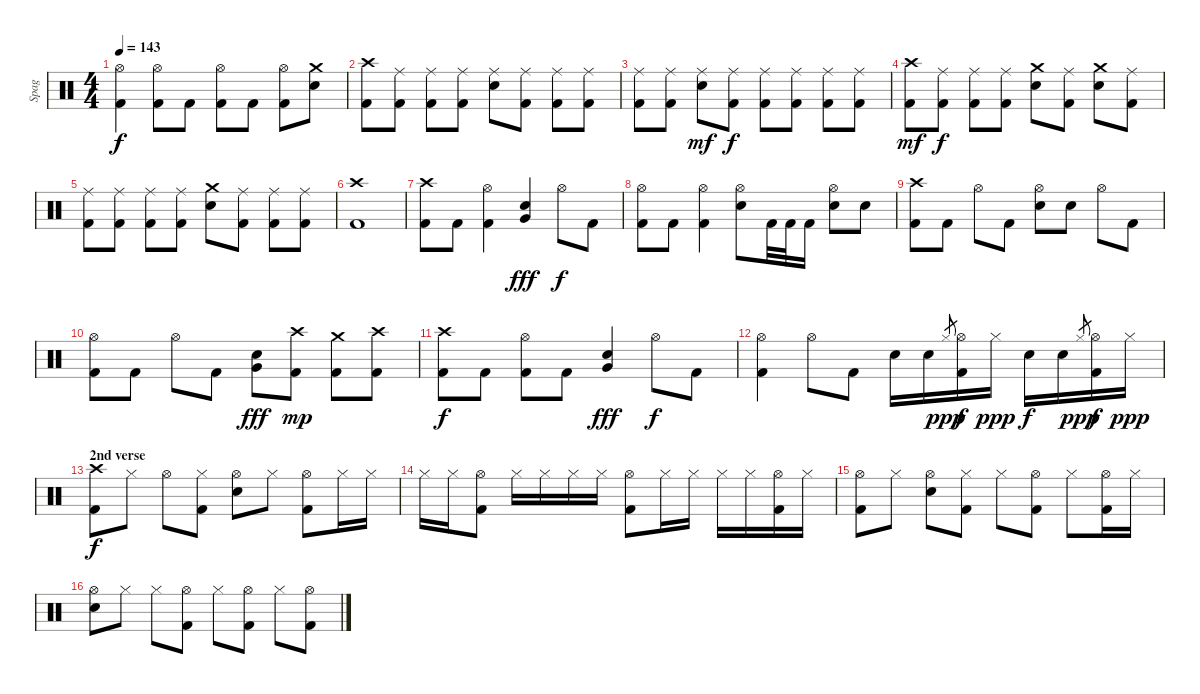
\track ("Spag" "Spag") {instrument percussion}
\staff {score}
\articulation defaults
\ts (4 4)
\tempo 143
\clef neutral
\ks c
("Hi-Hat (open)" "Kick (hit) 2").4{dy f} ("Hi-Hat (open)" "Kick (hit) 2").8 "Kick (hit) 2".8 ("Hi-Hat (open)" "Kick (hit) 2").8 "Kick (hit) 2".8 ("Hi-Hat (open)" "Kick (hit) 2").8 ("Crash medium (hit)" "Electric Snare (hit)").8 |
("Crash high (hit)" "Kick (hit) 2").8 ("Ride (middle)" "Kick (hit) 2").8 ("Ride (middle)" "Kick (hit) 2").8 ("Ride (middle)" "Kick (hit) 2").8 ("Ride (middle)" "Electric Snare (hit)").8 ("Ride (middle)" "Kick (hit) 2").8 ("Ride (middle)" "Kick (hit) 2").8 ("Ride (middle)" "Kick (hit) 2").8 |
("Ride (middle)" "Kick (hit) 2").8 ("Ride (middle)" "Kick (hit) 2").8 ("Ride (middle)" "Electric Snare (hit)").8{dy mf} ("Ride (middle)" "Kick (hit) 2").8{dy f} ("Ride (middle)" "Kick (hit) 2").8 ("Ride (middle)" "Kick (hit) 2").8 ("Ride (middle)" "Kick (hit) 2").8 ("Ride (middle)" "Kick (hit) 2").8 |
("Crash high (hit)" "Kick (hit) 2").8{dy mf} ("Ride (middle)" "Kick (hit) 2").8{dy f} ("Ride (middle)" "Kick (hit) 2").8 ("Ride (middle)" "Kick (hit) 2").8 ("Crash medium (hit)" "Electric Snare (hit)").8 ("Ride (middle)" "Kick (hit) 2").8 ("Crash medium (hit)" "Electric Snare (hit)").8 ("Ride (middle)" "Kick (hit) 2").8 |
("Ride (middle)" "Kick (hit) 2").8 ("Ride (middle)" "Kick (hit) 2").8 ("Ride (middle)" "Kick (hit) 2").8 ("Ride (middle)" "Kick (hit) 2").8 ("Crash medium (hit)" "Electric Snare (hit)").8 ("Ride (middle)" "Kick (hit) 2").8 ("Ride (middle)" "Kick (hit) 2").8 ("Ride (middle)" "Kick (hit) 2").8 |
("Crash high (hit)" "Kick (hit) 2").1 |
("Crash high (hit)" "Kick (hit) 2").8 "Kick (hit) 2".8 ("Hi-Hat (open)" "Kick (hit) 2").4 ("Electric Snare (hit)" "Very Low Tom (hit)").4{dy fff} "Hi-Hat (open)".8{dy f} "Kick (hit) 2".8 |
("Hi-Hat (open)" "Kick (hit) 2").8 "Kick (hit) 2".8 ("Hi-Hat (open)" "Kick (hit) 2").4 ("Hi-Hat (open)" "Electric Snare (hit)").8 "Kick (hit) 2".32 "Kick (hit) 2".32 "Kick (hit) 2".16 ("Hi-Hat (open)" "Electric Snare (hit)").8 "Electric Snare (hit)".8 |
("Crash high (hit)" "Kick (hit) 2").8 "Kick (hit) 2".8 "Hi-Hat (open)".8 "Kick (hit) 2".8 ("Hi-Hat (open)" "Electric Snare (hit)").8 "Electric Snare (hit)".8 "Hi-Hat (open)".8 "Kick (hit) 2".8 |
("Hi-Hat (open)" "Kick (hit) 2").8 "Kick (hit) 2".8 "Hi-Hat (open)".8 "Kick (hit) 2".8 ("Electric Snare (hit)" "Very Low Tom (hit)").8{dy fff} ("Crash high (hit)" "Kick (hit) 2").8{dy mp} ("Crash medium (hit)" "Kick (hit) 2").8 ("Crash high (hit)" "Kick (hit) 2").8 |
("Crash high (hit)" "Kick (hit) 2").8{dy f} "Kick (hit) 2".8 ("Hi-Hat (open)" "Kick (hit) 2").8 "Kick (hit) 2".8 ("Electric Snare (hit)" "Very Low Tom (hit)").4{dy fff} "Hi-Hat (open)".8{dy f} "Kick (hit) 2".8 |
("Hi-Hat (open)" "Kick (hit) 2").4 "Hi-Hat (open)".8 "Kick (hit) 2".8 "Electric Snare (hit)".16 "Electric Snare (hit)".16 "Hi-Hat (closed)".8{gr dy ppp} ("Hi-Hat (open)" "Kick (hit) 2").16{dy f} "Hi-Hat (closed)".16{dy ppp} "Electric Snare (hit)".16{dy f} "Electric Snare (hit)".16 "Hi-Hat (closed)".8{gr dy ppp} ("Hi-Hat (open)" "Kick (hit) 2").16{dy f} "Hi-Hat (closed)".16{dy ppp} |
\section ("" "2nd verse")
("Crash high (hit)" "Kick (hit) 2").8{dy f} "Hi-Hat (closed)".8 "Hi-Hat (open)".8 ("Hi-Hat (closed)" "Kick (hit) 2").8 ("Hi-Hat (open)" "Electric Snare (hit)").8 "Hi-Hat (closed)".8 ("Hi-Hat (open)" "Kick (hit) 2").8 "Hi-Hat (closed)".16 "Hi-Hat (closed)".16 |
"Hi-Hat (closed)".16 "Hi-Hat (closed)".16 ("Hi-Hat (open)" "Kick (hit) 2").8 "Hi-Hat (closed)".16 "Hi-Hat (closed)".16 "Hi-Hat (closed)".16 "Hi-Hat (closed)".16 ("Hi-Hat (open)" "Kick (hit) 2").8 "Hi-Hat (closed)".16 "Hi-Hat (closed)".16 "Hi-Hat (closed)".16 "Hi-Hat (closed)".16 ("Hi-Hat (open)" "Kick (hit) 2").16 "Hi-Hat (closed)".16 |
("Hi-Hat (open)" "Kick (hit) 2").8 "Hi-Hat (closed)".8 ("Hi-Hat (open)" "Electric Snare (hit)").8 ("Hi-Hat (closed)" "Kick (hit) 2").8 "Hi-Hat (closed)".8 ("Hi-Hat (open)" "Kick (hit) 2").8 "Hi-Hat (closed)".8 ("Hi-Hat (open)" "Kick (hit) 2").16 "Hi-Hat (closed)".16 |
("Hi-Hat (open)" "Electric Snare (hit)").8 "Hi-Hat (closed)".8 "Hi-Hat (closed)".8 ("Hi-Hat (open)" "Kick (hit) 2").8 "Hi-Hat (closed)".8 ("Hi-Hat (open)" "Kick (hit) 2").8 "Hi-Hat (closed)".8 ("Hi-Hat (open)" "Kick (hit) 2").8
